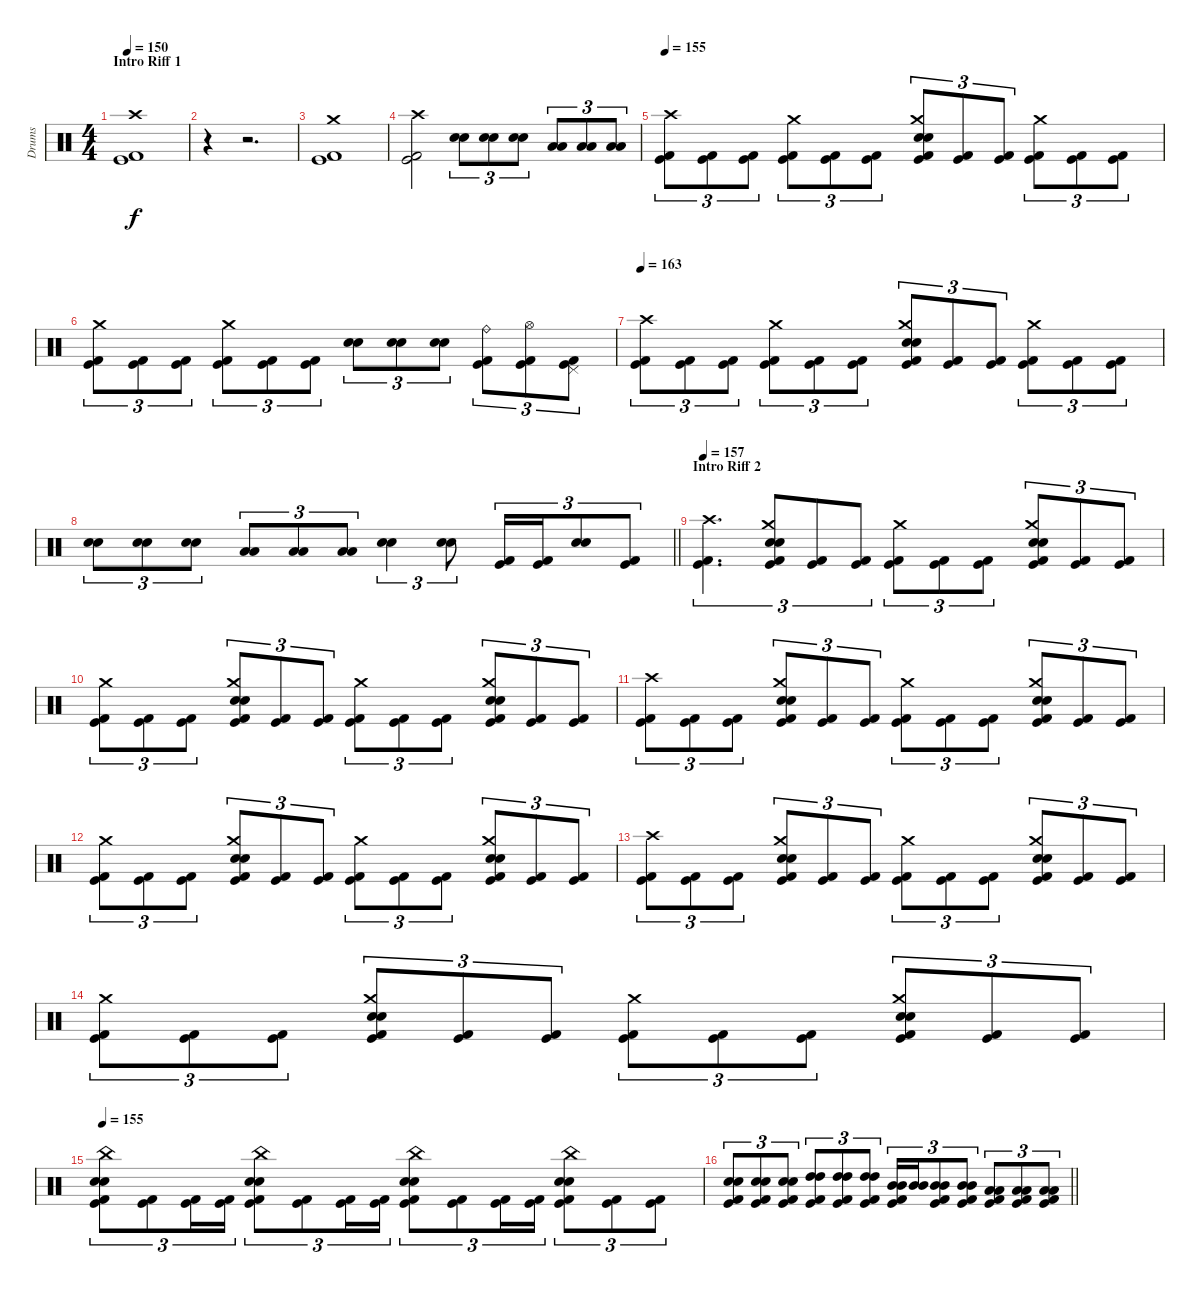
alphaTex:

\track ("Drums" "Drums") {instrument percussion}
\staff {score}
\articulation defaults
\ts (4 4)
\section ("" "Intro Riff 1")
\tempo 150
\clef neutral
\ks c
("Crash high (hit)" "Kick (hit) 2" "Kick (hit)").1{dy f} |
r.4 r.2{d} |
("Crash medium (hit)" "Kick (hit) 2" "Kick (hit)").1 |
("Crash high (hit)" "Kick (hit) 2" "Kick (hit)").2 ("Electric Snare (hit)" "Electric Snare (hit)").8{tu (3 2)} ("Electric Snare (hit)" "Electric Snare (hit)").8{tu (3 2)} ("Electric Snare (hit)" "Electric Snare (hit)").8{tu (3 2)} ("Low Tom (hit)" "Low Tom (hit)").8{tu (3 2)} ("Low Tom (hit)" "Low Tom (hit)").8{tu (3 2)} ("Low Tom (hit)" "Low Tom (hit)").8{tu (3 2)} |
\tempo 155
("Crash high (hit)" "Kick (hit) 2" "Kick (hit)").8{tu (3 2)} ("Kick (hit) 2" "Kick (hit)").8{tu (3 2)} ("Kick (hit) 2" "Kick (hit)").8{tu (3 2)} ("Crash medium (hit)" "Kick (hit) 2" "Kick (hit)").8{tu (3 2)} ("Kick (hit) 2" "Kick (hit)").8{tu (3 2)} ("Kick (hit) 2" "Kick (hit)").8{tu (3 2)} ("Crash medium (hit)" "Electric Snare (hit)" "Electric Snare (hit)" "Kick (hit) 2" "Kick (hit)").8{tu (3 2)} ("Kick (hit) 2" "Kick (hit)").8{tu (3 2)} ("Kick (hit) 2" "Kick (hit)").8{tu (3 2)} ("Crash medium (hit)" "Kick (hit) 2" "Kick (hit)").8{tu (3 2)} ("Kick (hit) 2" "Kick (hit)").8{tu (3 2)} ("Kick (hit) 2" "Kick (hit)").8{tu (3 2)} |
("Crash medium (hit)" "Kick (hit) 2" "Kick (hit)").8{tu (3 2)} ("Kick (hit) 2" "Kick (hit)").8{tu (3 2)} ("Kick (hit) 2" "Kick (hit)").8{tu (3 2)} ("Crash medium (hit)" "Kick (hit) 2" "Kick (hit)").8{tu (3 2)} ("Kick (hit) 2" "Kick (hit)").8{tu (3 2)} ("Kick (hit) 2" "Kick (hit)").8{tu (3 2)} ("Electric Snare (hit)" "Electric Snare (hit)").8{tu (3 2)} ("Electric Snare (hit)" "Electric Snare (hit)").8{tu (3 2)} ("Electric Snare (hit)" "Electric Snare (hit)").8{tu (3 2)} ("Ride (bell)" "Kick (hit) 2" "Kick (hit)").8{tu (3 2)} ("Hi-Hat (open)" "Kick (hit) 2" "Kick (hit)").8{tu (3 2)} ("Pedal Hi-Hat (hit)" "Kick (hit) 2" "Kick (hit)").8{tu (3 2)} |
\tempo 163
("Crash high (hit)" "Kick (hit) 2" "Kick (hit)").8{tu (3 2)} ("Kick (hit) 2" "Kick (hit)").8{tu (3 2)} ("Kick (hit) 2" "Kick (hit)").8{tu (3 2)} ("Crash medium (hit)" "Kick (hit) 2" "Kick (hit)").8{tu (3 2)} ("Kick (hit) 2" "Kick (hit)").8{tu (3 2)} ("Kick (hit) 2" "Kick (hit)").8{tu (3 2)} ("Crash medium (hit)" "Electric Snare (hit)" "Electric Snare (hit)" "Kick (hit) 2" "Kick (hit)").8{tu (3 2)} ("Kick (hit) 2" "Kick (hit)").8{tu (3 2)} ("Kick (hit) 2" "Kick (hit)").8{tu (3 2)} ("Crash medium (hit)" "Kick (hit) 2" "Kick (hit)").8{tu (3 2)} ("Kick (hit) 2" "Kick (hit)").8{tu (3 2)} ("Kick (hit) 2" "Kick (hit)").8{tu (3 2)} |
\barLineRight lightlight
("Electric Snare (hit)" "Electric Snare (hit)").8{tu (3 2)} ("Electric Snare (hit)" "Electric Snare (hit)").8{tu (3 2)} ("Electric Snare (hit)" "Electric Snare (hit)").8{tu (3 2)} ("Low Tom (hit)" "Low Tom (hit)").8{tu (3 2)} ("Low Tom (hit)" "Low Tom (hit)").8{tu (3 2)} ("Low Tom (hit)" "Low Tom (hit)").8{tu (3 2)} ("Electric Snare (hit)" "Electric Snare (hit)").4{tu (3 2)} ("Electric Snare (hit)" "Electric Snare (hit)").8{tu (3 2)} ("Kick (hit) 2" "Kick (hit)").16{tu (3 2)} ("Kick (hit) 2" "Kick (hit)").16{tu (3 2)} ("Electric Snare (hit)" "Electric Snare (hit)").8{tu (3 2)} ("Kick (hit) 2" "Kick (hit)").8{tu (3 2)} |
\section ("" "Intro Riff 2")
\tempo 157
("Crash high (hit)" "Kick (hit) 2" "Kick (hit)").4{d tu (3 2)} ("Crash medium (hit)" "Electric Snare (hit)" "Electric Snare (hit)" "Kick (hit) 2" "Kick (hit)").8{tu (3 2)} ("Kick (hit) 2" "Kick (hit)").8{tu (3 2)} ("Kick (hit) 2" "Kick (hit)").8{tu (3 2)} ("Crash medium (hit)" "Kick (hit) 2" "Kick (hit)").8{tu (3 2)} ("Kick (hit) 2" "Kick (hit)").8{tu (3 2)} ("Kick (hit) 2" "Kick (hit)").8{tu (3 2)} ("Crash medium (hit)" "Electric Snare (hit)" "Electric Snare (hit)" "Kick (hit) 2" "Kick (hit)").8{tu (3 2)} ("Kick (hit) 2" "Kick (hit)").8{tu (3 2)} ("Kick (hit) 2" "Kick (hit)").8{tu (3 2)} |
("Crash medium (hit)" "Kick (hit) 2" "Kick (hit)").8{tu (3 2)} ("Kick (hit) 2" "Kick (hit)").8{tu (3 2)} ("Kick (hit) 2" "Kick (hit)").8{tu (3 2)} ("Crash medium (hit)" "Electric Snare (hit)" "Electric Snare (hit)" "Kick (hit) 2" "Kick (hit)").8{tu (3 2)} ("Kick (hit) 2" "Kick (hit)").8{tu (3 2)} ("Kick (hit) 2" "Kick (hit)").8{tu (3 2)} ("Crash medium (hit)" "Kick (hit) 2" "Kick (hit)").8{tu (3 2)} ("Kick (hit) 2" "Kick (hit)").8{tu (3 2)} ("Kick (hit) 2" "Kick (hit)").8{tu (3 2)} ("Crash medium (hit)" "Electric Snare (hit)" "Electric Snare (hit)" "Kick (hit) 2" "Kick (hit)").8{tu (3 2)} ("Kick (hit) 2" "Kick (hit)").8{tu (3 2)} ("Kick (hit) 2" "Kick (hit)").8{tu (3 2)} |
("Crash high (hit)" "Kick (hit) 2" "Kick (hit)").8{tu (3 2)} ("Kick (hit) 2" "Kick (hit)").8{tu (3 2)} ("Kick (hit) 2" "Kick (hit)").8{tu (3 2)} ("Crash medium (hit)" "Electric Snare (hit)" "Electric Snare (hit)" "Kick (hit) 2" "Kick (hit)").8{tu (3 2)} ("Kick (hit) 2" "Kick (hit)").8{tu (3 2)} ("Kick (hit) 2" "Kick (hit)").8{tu (3 2)} ("Crash medium (hit)" "Kick (hit) 2" "Kick (hit)").8{tu (3 2)} ("Kick (hit) 2" "Kick (hit)").8{tu (3 2)} ("Kick (hit) 2" "Kick (hit)").8{tu (3 2)} ("Crash medium (hit)" "Electric Snare (hit)" "Electric Snare (hit)" "Kick (hit) 2" "Kick (hit)").8{tu (3 2)} ("Kick (hit) 2" "Kick (hit)").8{tu (3 2)} ("Kick (hit) 2" "Kick (hit)").8{tu (3 2)} |
("Crash medium (hit)" "Kick (hit) 2" "Kick (hit)").8{tu (3 2)} ("Kick (hit) 2" "Kick (hit)").8{tu (3 2)} ("Kick (hit) 2" "Kick (hit)").8{tu (3 2)} ("Crash medium (hit)" "Electric Snare (hit)" "Electric Snare (hit)" "Kick (hit) 2" "Kick (hit)").8{tu (3 2)} ("Kick (hit) 2" "Kick (hit)").8{tu (3 2)} ("Kick (hit) 2" "Kick (hit)").8{tu (3 2)} ("Crash medium (hit)" "Kick (hit) 2" "Kick (hit)").8{tu (3 2)} ("Kick (hit) 2" "Kick (hit)").8{tu (3 2)} ("Kick (hit) 2" "Kick (hit)").8{tu (3 2)} ("Crash medium (hit)" "Electric Snare (hit)" "Electric Snare (hit)" "Kick (hit) 2" "Kick (hit)").8{tu (3 2)} ("Kick (hit) 2" "Kick (hit)").8{tu (3 2)} ("Kick (hit) 2" "Kick (hit)").8{tu (3 2)} |
("Crash high (hit)" "Kick (hit) 2" "Kick (hit)").8{tu (3 2)} ("Kick (hit) 2" "Kick (hit)").8{tu (3 2)} ("Kick (hit) 2" "Kick (hit)").8{tu (3 2)} ("Crash medium (hit)" "Electric Snare (hit)" "Electric Snare (hit)" "Kick (hit) 2" "Kick (hit)").8{tu (3 2)} ("Kick (hit) 2" "Kick (hit)").8{tu (3 2)} ("Kick (hit) 2" "Kick (hit)").8{tu (3 2)} ("Crash medium (hit)" "Kick (hit) 2" "Kick (hit)").8{tu (3 2)} ("Kick (hit) 2" "Kick (hit)").8{tu (3 2)} ("Kick (hit) 2" "Kick (hit)").8{tu (3 2)} ("Crash medium (hit)" "Electric Snare (hit)" "Electric Snare (hit)" "Kick (hit) 2" "Kick (hit)").8{tu (3 2)} ("Kick (hit) 2" "Kick (hit)").8{tu (3 2)} ("Kick (hit) 2" "Kick (hit)").8{tu (3 2)} |
("Crash medium (hit)" "Kick (hit) 2" "Kick (hit)").8{tu (3 2)} ("Kick (hit) 2" "Kick (hit)").8{tu (3 2)} ("Kick (hit) 2" "Kick (hit)").8{tu (3 2)} ("Crash medium (hit)" "Electric Snare (hit)" "Electric Snare (hit)" "Kick (hit) 2" "Kick (hit)").8{tu (3 2)} ("Kick (hit) 2" "Kick (hit)").8{tu (3 2)} ("Kick (hit) 2" "Kick (hit)").8{tu (3 2)} ("Crash medium (hit)" "Kick (hit) 2" "Kick (hit)").8{tu (3 2)} ("Kick (hit) 2" "Kick (hit)").8{tu (3 2)} ("Kick (hit) 2" "Kick (hit)").8{tu (3 2)} ("Crash medium (hit)" "Electric Snare (hit)" "Electric Snare (hit)" "Kick (hit) 2" "Kick (hit)").8{tu (3 2)} ("Kick (hit) 2" "Kick (hit)").8{tu (3 2)} ("Kick (hit) 2" "Kick (hit)").8{tu (3 2)} |
\tempo 155
("China (hit)" "Electric Snare (hit)" "Electric Snare (hit)" "Kick (hit) 2" "Kick (hit)").8{tu (3 2)} ("Kick (hit) 2" "Kick (hit)").8{tu (3 2)} ("Kick (hit) 2" "Kick (hit)").16{tu (3 2)} ("Kick (hit) 2" "Kick (hit)").16{tu (3 2)} ("China (hit)" "Electric Snare (hit)" "Electric Snare (hit)" "Kick (hit) 2" "Kick (hit)").8{tu (3 2)} ("Kick (hit) 2" "Kick (hit)").8{tu (3 2)} ("Kick (hit) 2" "Kick (hit)").16{tu (3 2)} ("Kick (hit) 2" "Kick (hit)").16{tu (3 2)} ("China (hit)" "Electric Snare (hit)" "Electric Snare (hit)" "Kick (hit) 2" "Kick (hit)").8{tu (3 2)} ("Kick (hit) 2" "Kick (hit)").8{tu (3 2)} ("Kick (hit) 2" "Kick (hit)").16{tu (3 2)} ("Kick (hit) 2" "Kick (hit)").16{tu (3 2)} ("China (hit)" "Electric Snare (hit)" "Electric Snare (hit)" "Kick (hit) 2" "Kick (hit)").8{tu (3 2)} ("Kick (hit) 2" "Kick (hit)").8{tu (3 2)} ("Kick (hit) 2" "Kick (hit)").8{tu (3 2)} |
\barLineRight lightlight
("Electric Snare (hit)" "Electric Snare (hit)" "Kick (hit) 2" "Kick (hit)").8{tu (3 2)} ("Electric Snare (hit)" "Electric Snare (hit)" "Kick (hit) 2" "Kick (hit)").8{tu (3 2)} ("Electric Snare (hit)" "Electric Snare (hit)" "Kick (hit) 2" "Kick (hit)").8{tu (3 2)} ("High Tom (hit)" "High Tom (hit)" "Kick (hit) 2" "Kick (hit)").8{tu (3 2)} ("High Tom (hit)" "High Tom (hit)" "Kick (hit) 2" "Kick (hit)").8{tu (3 2)} ("High Tom (hit)" "High Tom (hit)" "Kick (hit) 2" "Kick (hit)").8{tu (3 2)} ("Mid Tom (hit)" "Mid Tom (hit)" "Kick (hit) 2" "Kick (hit)").16{tu (3 2)} ("Mid Tom (hit)" "Mid Tom (hit)").16{tu (3 2)} ("Mid Tom (hit)" "Mid Tom (hit)" "Kick (hit) 2" "Kick (hit)").8{tu (3 2)} ("Mid Tom (hit)" "Mid Tom (hit)" "Kick (hit) 2" "Kick (hit)").8{tu (3 2)} ("Low Tom (hit)" "Low Tom (hit)" "Kick (hit) 2" "Kick (hit)").8{tu (3 2)} ("Low Tom (hit)" "Low Tom (hit)" "Kick (hit) 2" "Kick (hit)").8{tu (3 2)} ("Low Tom (hit)" "Low Tom (hit)" "Kick (hit) 2" "Kick (hit)").8{tu (3 2)}
